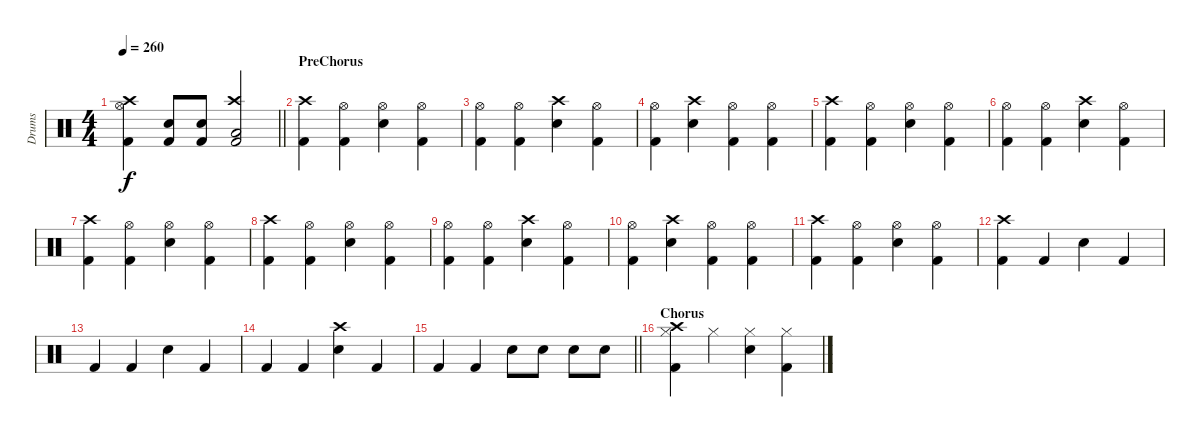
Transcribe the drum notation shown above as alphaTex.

\track ("Drums" "Drums") {instrument percussion bank 2}
\staff {score}
\articulation defaults
\ts (4 4)
\tempo 260
\clef neutral
\barLineRight lightlight
\ks c
("Kick (hit) 2" "Hi-Hat (open)" "Crash high (hit)").4{dy f} ("Kick (hit) 2" "Snare (hit) 2").8 ("Kick (hit) 2" "Snare (hit) 2").8 ("Kick (hit) 2" "Low Floor Tom (hit)" "Crash high (hit)").2 |
\section ("" "PreChorus")
("Crash high (hit)" "Kick (hit) 2").4 ("Hi-Hat (open)" "Kick (hit) 2").4 ("Hi-Hat (open)" "Snare (hit) 2").4 ("Hi-Hat (open)" "Kick (hit) 2").4 |
("Hi-Hat (open)" "Kick (hit) 2").4 ("Hi-Hat (open)" "Kick (hit) 2").4 ("Snare (hit) 2" "Crash high (hit)").4 ("Hi-Hat (open)" "Kick (hit) 2").4 |
("Hi-Hat (open)" "Kick (hit) 2").4 ("Snare (hit) 2" "Crash high (hit)").4 ("Hi-Hat (open)" "Kick (hit) 2").4 ("Hi-Hat (open)" "Kick (hit) 2").4 |
("Crash high (hit)" "Kick (hit) 2").4 ("Hi-Hat (open)" "Kick (hit) 2").4 ("Hi-Hat (open)" "Snare (hit) 2").4 ("Hi-Hat (open)" "Kick (hit) 2").4 |
("Hi-Hat (open)" "Kick (hit) 2").4 ("Hi-Hat (open)" "Kick (hit) 2").4 ("Snare (hit) 2" "Crash high (hit)").4 ("Hi-Hat (open)" "Kick (hit) 2").4 |
("Crash high (hit)" "Kick (hit) 2").4 ("Hi-Hat (open)" "Kick (hit) 2").4 ("Hi-Hat (open)" "Snare (hit) 2").4 ("Hi-Hat (open)" "Kick (hit) 2").4 |
("Crash high (hit)" "Kick (hit) 2").4 ("Hi-Hat (open)" "Kick (hit) 2").4 ("Hi-Hat (open)" "Snare (hit) 2").4 ("Hi-Hat (open)" "Kick (hit) 2").4 |
("Hi-Hat (open)" "Kick (hit) 2").4 ("Hi-Hat (open)" "Kick (hit) 2").4 ("Snare (hit) 2" "Crash high (hit)").4 ("Hi-Hat (open)" "Kick (hit) 2").4 |
("Hi-Hat (open)" "Kick (hit) 2").4 ("Snare (hit) 2" "Crash high (hit)").4 ("Hi-Hat (open)" "Kick (hit) 2").4 ("Hi-Hat (open)" "Kick (hit) 2").4 |
("Crash high (hit)" "Kick (hit) 2").4 ("Hi-Hat (open)" "Kick (hit) 2").4 ("Hi-Hat (open)" "Snare (hit) 2").4 ("Hi-Hat (open)" "Kick (hit) 2").4 |
("Crash high (hit)" "Kick (hit) 2").4 "Kick (hit) 2".4 "Snare (hit) 2".4 "Kick (hit) 2".4 |
"Kick (hit) 2".4 "Kick (hit) 2".4 "Snare (hit) 2".4 "Kick (hit) 2".4 |
"Kick (hit) 2".4 "Kick (hit) 2".4 ("Crash high (hit)" "Snare (hit) 2").4 "Kick (hit) 2".4 |
\barLineRight lightlight "Kick (hit) 2".4 "Kick (hit) 2".4 "Snare (hit) 2".8 "Snare (hit) 2".8 "Snare (hit) 2".8 "Snare (hit) 2".8
|
\section ("" "Chorus")
("Hi-Hat (closed)" "Kick (hit) 2" "Crash high (hit)").4 "Hi-Hat (closed)".4 ("Hi-Hat (closed)" "Snare (hit) 2").4 ("Hi-Hat (closed)" "Kick (hit) 2").4
